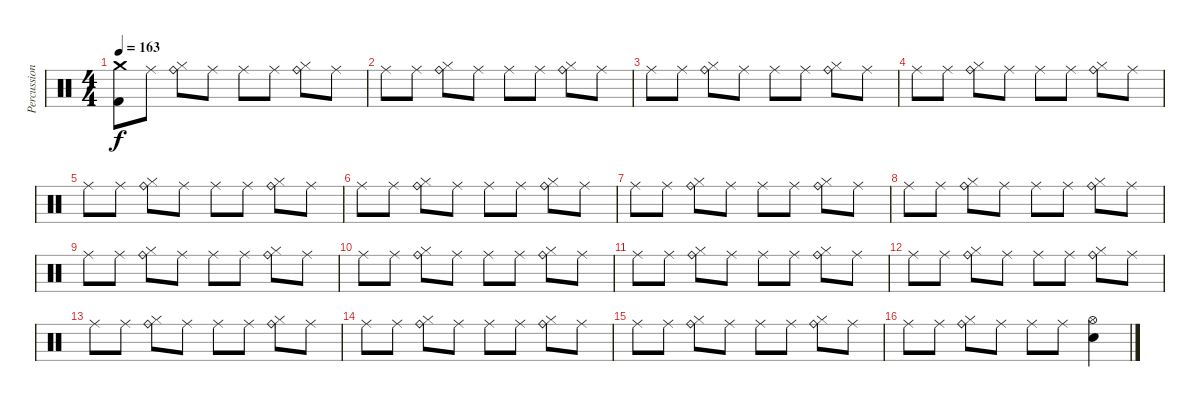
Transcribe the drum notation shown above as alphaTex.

\track ("Percussion" "Percussion") {instrument percussion}
\staff {score}
\articulation defaults
\ts (4 4)
\tempo 163
\clef neutral
\ks c
("Crash medium (hit)" "Kick (hit) 2").8{dy f} "Ride (middle)".8 ("Ride (bell)" "Hi-Hat (closed)").8 "Ride (middle)".8 "Ride (middle)".8 "Ride (middle)".8 ("Ride (bell)" "Hi-Hat (closed)").8 "Ride (middle)".8 |
"Ride (middle)".8 "Ride (middle)".8 ("Ride (bell)" "Hi-Hat (closed)").8 "Ride (middle)".8 "Ride (middle)".8 "Ride (middle)".8 ("Ride (bell)" "Hi-Hat (closed)").8 "Ride (middle)".8 |
"Ride (middle)".8 "Ride (middle)".8 ("Ride (bell)" "Hi-Hat (closed)").8 "Ride (middle)".8 "Ride (middle)".8 "Ride (middle)".8 ("Ride (bell)" "Hi-Hat (closed)").8 "Ride (middle)".8 |
"Ride (middle)".8 "Ride (middle)".8 ("Ride (bell)" "Hi-Hat (closed)").8 "Ride (middle)".8 "Ride (middle)".8 "Ride (middle)".8 ("Ride (bell)" "Hi-Hat (closed)").8 "Ride (middle)".8 |
"Ride (middle)".8 "Ride (middle)".8 ("Ride (bell)" "Hi-Hat (closed)").8 "Ride (middle)".8 "Ride (middle)".8 "Ride (middle)".8 ("Ride (bell)" "Hi-Hat (closed)").8 "Ride (middle)".8 |
"Ride (middle)".8 "Ride (middle)".8 ("Ride (bell)" "Hi-Hat (closed)").8 "Ride (middle)".8 "Ride (middle)".8 "Ride (middle)".8 ("Ride (bell)" "Hi-Hat (closed)").8 "Ride (middle)".8 |
"Ride (middle)".8 "Ride (middle)".8 ("Ride (bell)" "Hi-Hat (closed)").8 "Ride (middle)".8 "Ride (middle)".8 "Ride (middle)".8 ("Ride (bell)" "Hi-Hat (closed)").8 "Ride (middle)".8 |
"Ride (middle)".8 "Ride (middle)".8 ("Ride (bell)" "Hi-Hat (closed)").8 "Ride (middle)".8 "Ride (middle)".8 "Ride (middle)".8 ("Ride (bell)" "Hi-Hat (closed)").8 "Ride (middle)".8 |
"Ride (middle)".8 "Ride (middle)".8 ("Ride (bell)" "Hi-Hat (closed)").8 "Ride (middle)".8 "Ride (middle)".8 "Ride (middle)".8 ("Ride (bell)" "Hi-Hat (closed)").8 "Ride (middle)".8 |
"Ride (middle)".8 "Ride (middle)".8 ("Ride (bell)" "Hi-Hat (closed)").8 "Ride (middle)".8 "Ride (middle)".8 "Ride (middle)".8 ("Ride (bell)" "Hi-Hat (closed)").8 "Ride (middle)".8 |
"Ride (middle)".8 "Ride (middle)".8 ("Ride (bell)" "Hi-Hat (closed)").8 "Ride (middle)".8 "Ride (middle)".8 "Ride (middle)".8 ("Ride (bell)" "Hi-Hat (closed)").8 "Ride (middle)".8 |
"Ride (middle)".8 "Ride (middle)".8 ("Ride (bell)" "Hi-Hat (closed)").8 "Ride (middle)".8 "Ride (middle)".8 "Ride (middle)".8 ("Ride (bell)" "Hi-Hat (closed)").8 "Ride (middle)".8 |
"Ride (middle)".8 "Ride (middle)".8 ("Ride (bell)" "Hi-Hat (closed)").8 "Ride (middle)".8 "Ride (middle)".8 "Ride (middle)".8 ("Ride (bell)" "Hi-Hat (closed)").8 "Ride (middle)".8 |
"Ride (middle)".8 "Ride (middle)".8 ("Ride (bell)" "Hi-Hat (closed)").8 "Ride (middle)".8 "Ride (middle)".8 "Ride (middle)".8 ("Ride (bell)" "Hi-Hat (closed)").8 "Ride (middle)".8 |
"Ride (middle)".8 "Ride (middle)".8 ("Ride (bell)" "Hi-Hat (closed)").8 "Ride (middle)".8 "Ride (middle)".8 "Ride (middle)".8 ("Ride (bell)" "Hi-Hat (closed)").8 "Ride (middle)".8 |
"Ride (middle)".8 "Ride (middle)".8 ("Ride (bell)" "Hi-Hat (closed)").8 "Ride (middle)".8 "Ride (middle)".8 "Ride (middle)".8 ("Hi-Hat (open)" "Electric Snare (hit)").4
